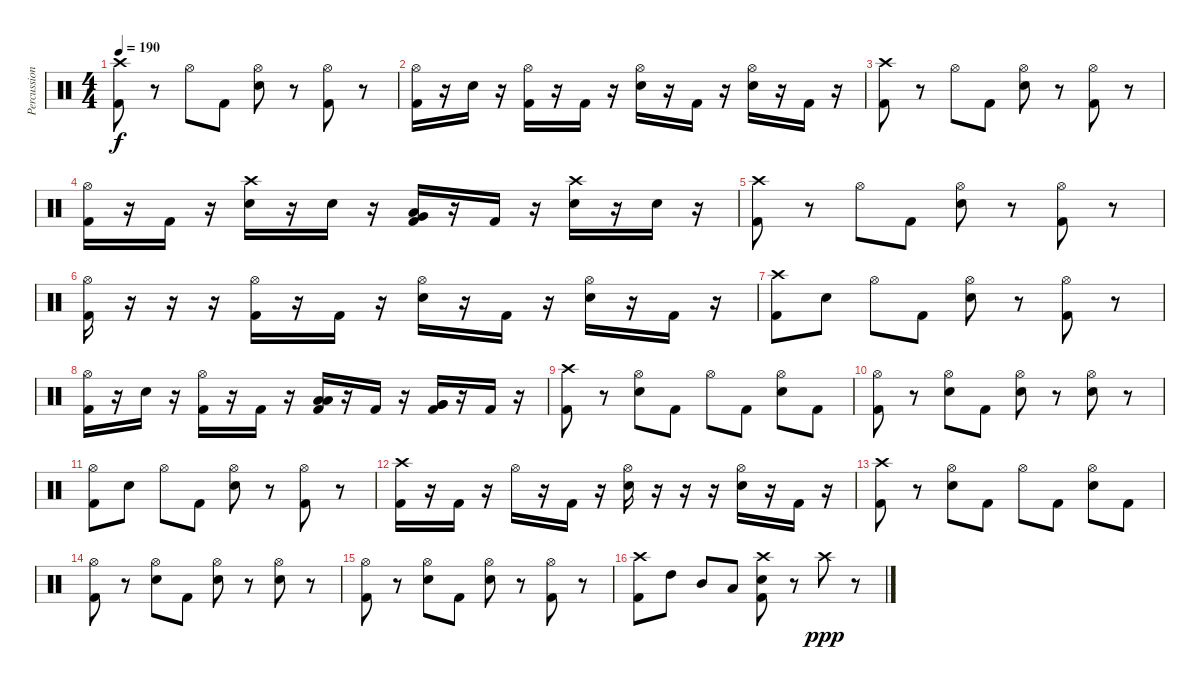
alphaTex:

\track ("Percussion" "Percussion") {instrument percussion}
\staff {score}
\articulation defaults
\ts (4 4)
\tempo 190
\clef neutral
\ks c
("Crash high (hit)" "Kick (hit) 2").8{dy f} r.8 "Hi-Hat (open)".8 "Kick (hit) 2".8 ("Hi-Hat (open)" "Snare (hit) 2").8 r.8 ("Hi-Hat (open)" "Kick (hit) 2").8 r.8 |
("Hi-Hat (open)" "Kick (hit) 2").16 r.16 "Snare (hit) 2".16 r.16 ("Hi-Hat (open)" "Kick (hit) 2").16 r.16 "Kick (hit) 2".16 r.16 ("Hi-Hat (open)" "Snare (hit) 2").16 r.16 "Kick (hit) 2".16 r.16 ("Hi-Hat (open)" "Snare (hit) 2").16 r.16 "Kick (hit) 2".16 r.16 |
("Crash high (hit)" "Kick (hit) 2").8 r.8 "Hi-Hat (open)".8 "Kick (hit) 2".8 ("Hi-Hat (open)" "Snare (hit) 2").8 r.8 ("Hi-Hat (open)" "Kick (hit) 2").8 r.8 |
("Hi-Hat (open)" "Kick (hit) 2").16 r.16 "Kick (hit) 2".16 r.16 ("Crash high (hit)" "Snare (hit) 2").16 r.16 "Snare (hit) 2".16 r.16 ("Low Tom (hit)" "Very Low Tom (hit)" "Kick (hit) 2").16 r.16 "Kick (hit) 2".16 r.16 ("Crash high (hit)" "Snare (hit) 2").16 r.16 "Snare (hit) 2".16 r.16 |
("Crash high (hit)" "Kick (hit) 2").8 r.8 "Hi-Hat (open)".8 "Kick (hit) 2".8 ("Hi-Hat (open)" "Snare (hit) 2").8 r.8 ("Hi-Hat (open)" "Kick (hit) 2").8 r.8 |
("Hi-Hat (open)" "Kick (hit) 2").16 r.16 r.16 r.16 ("Hi-Hat (open)" "Kick (hit) 2").16 r.16 "Kick (hit) 2".16 r.16 ("Hi-Hat (open)" "Snare (hit) 2").16 r.16 "Kick (hit) 2".16 r.16 ("Hi-Hat (open)" "Snare (hit) 2").16 r.16 "Kick (hit) 2".16 r.16 |
("Crash high (hit)" "Kick (hit) 2").8 "Snare (hit) 2".8 "Hi-Hat (open)".8 "Kick (hit) 2".8 ("Hi-Hat (open)" "Snare (hit) 2").8 r.8 ("Hi-Hat (open)" "Kick (hit) 2").8 r.8 |
("Hi-Hat (open)" "Kick (hit) 2").16 r.16 "Snare (hit) 2".16 r.16 ("Hi-Hat (open)" "Kick (hit) 2").16 r.16 "Kick (hit) 2".16 r.16 ("Low Tom (hit)" "Low Tom (hit)" "Kick (hit) 2").16 r.16 "Kick (hit) 2".16 r.16 ("Very Low Tom (hit)" "Very Low Tom (hit)" "Kick (hit) 2").16 r.16 "Kick (hit) 2".16 r.16 |
("Crash high (hit)" "Kick (hit) 2").8 r.8 ("Hi-Hat (open)" "Snare (hit) 2").8 "Kick (hit) 2".8 "Hi-Hat (open)".8 "Kick (hit) 2".8 ("Hi-Hat (open)" "Snare (hit) 2").8 "Kick (hit) 2".8 |
("Hi-Hat (open)" "Kick (hit) 2").8 r.8 ("Hi-Hat (open)" "Snare (hit) 2").8 "Kick (hit) 2".8 ("Hi-Hat (open)" "Snare (hit) 2").8 r.8 ("Hi-Hat (open)" "Snare (hit) 2").8 r.8 |
("Hi-Hat (open)" "Kick (hit) 2").8 "Snare (hit) 2".8 "Hi-Hat (open)".8 "Kick (hit) 2".8 ("Hi-Hat (open)" "Snare (hit) 2").8 r.8 ("Hi-Hat (open)" "Kick (hit) 2").8 r.8 |
("Crash high (hit)" "Kick (hit) 2").16 r.16 "Kick (hit) 2".16 r.16 "Hi-Hat (open)".16 r.16 "Kick (hit) 2".16 r.16 ("Hi-Hat (open)" "Snare (hit) 2").16 r.16 r.16 r.16 ("Hi-Hat (open)" "Snare (hit) 2").16 r.16 "Kick (hit) 2".16 r.16 |
("Crash high (hit)" "Kick (hit) 2").8 r.8 ("Hi-Hat (open)" "Snare (hit) 2").8 "Kick (hit) 2".8 "Hi-Hat (open)".8 "Kick (hit) 2".8 ("Hi-Hat (open)" "Snare (hit) 2").8 "Kick (hit) 2".8 |
("Hi-Hat (open)" "Kick (hit) 2").8 r.8 ("Hi-Hat (open)" "Snare (hit) 2").8 "Kick (hit) 2".8 ("Hi-Hat (open)" "Snare (hit) 2").8 r.8 ("Hi-Hat (open)" "Snare (hit) 2").8 r.8 |
("Hi-Hat (open)" "Kick (hit) 2").8 r.8 ("Hi-Hat (open)" "Snare (hit) 2").8 "Kick (hit) 2".8 ("Hi-Hat (open)" "Snare (hit) 2").8 r.8 ("Hi-Hat (open)" "Kick (hit) 2").8 r.8 |
("Crash high (hit)" "Kick (hit) 2").8 "High Tom (hit)".8 "Mid Tom (hit)".8 "Low Tom (hit)".8 ("Crash high (hit)" "Snare (hit) 2" "Kick (hit) 2").8 r.8 "Crash high (hit)".8{dy ppp} r.8
